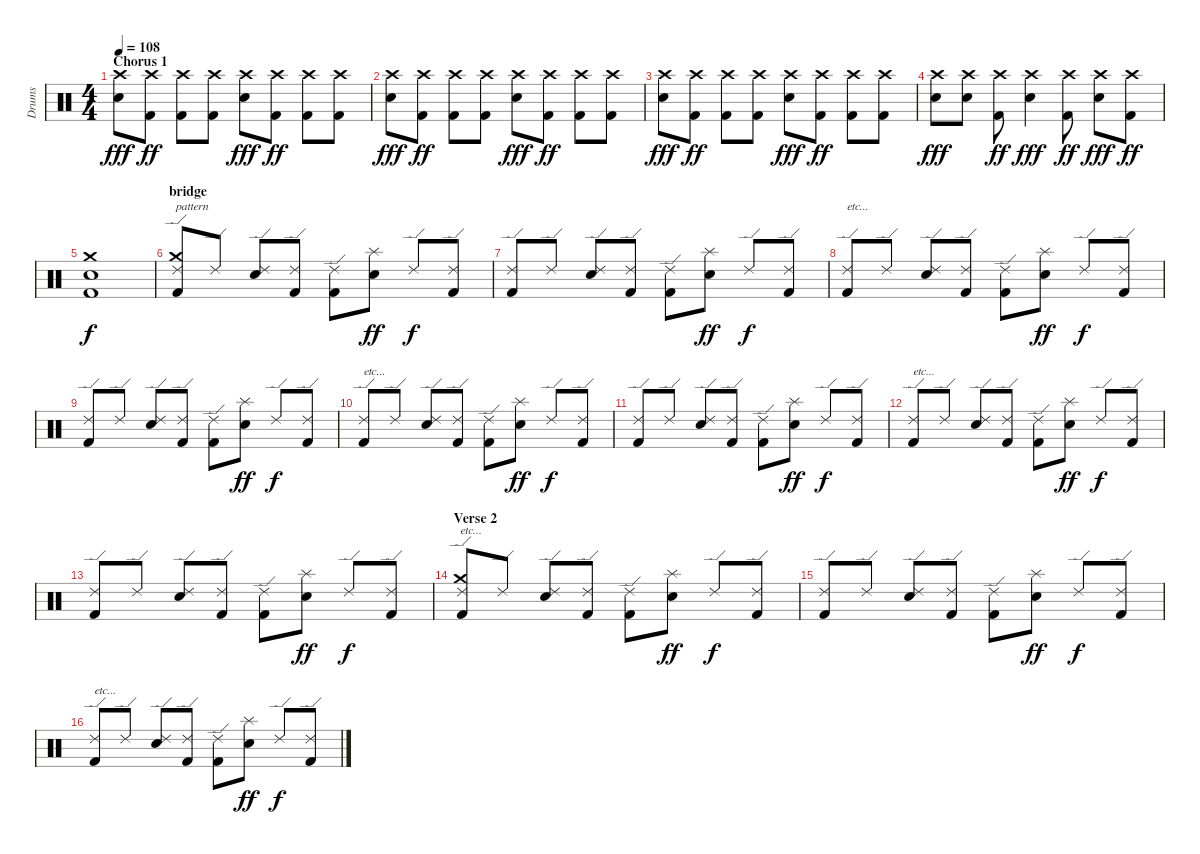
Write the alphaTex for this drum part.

\track ("Drums" "Drums") {instrument percussion}
\staff {score}
\articulation defaults
\ts (4 4)
\section ("" "Chorus 1")
\tempo 108
\clef neutral
\ks c
("Crash high (hit)" "Electric Snare (hit)").8{dy fff} ("Crash high (hit)" "Kick (hit) 2").8{dy ff} ("Crash high (hit)" "Kick (hit) 2").8 ("Crash high (hit)" "Kick (hit) 2").8 ("Crash high (hit)" "Electric Snare (hit)").8{dy fff} ("Crash high (hit)" "Kick (hit) 2").8{dy ff} ("Crash high (hit)" "Kick (hit) 2").8 ("Crash high (hit)" "Kick (hit) 2").8 |
("Crash high (hit)" "Electric Snare (hit)").8{dy fff} ("Crash high (hit)" "Kick (hit) 2").8{dy ff} ("Crash high (hit)" "Kick (hit) 2").8 ("Crash high (hit)" "Kick (hit) 2").8 ("Crash high (hit)" "Electric Snare (hit)").8{dy fff} ("Crash high (hit)" "Kick (hit) 2").8{dy ff} ("Crash high (hit)" "Kick (hit) 2").8 ("Crash high (hit)" "Kick (hit) 2").8 |
("Crash high (hit)" "Electric Snare (hit)").8{dy fff} ("Crash high (hit)" "Kick (hit) 2").8{dy ff} ("Crash high (hit)" "Kick (hit) 2").8 ("Crash high (hit)" "Kick (hit) 2").8 ("Crash high (hit)" "Electric Snare (hit)").8{dy fff} ("Crash high (hit)" "Kick (hit) 2").8{dy ff} ("Crash high (hit)" "Kick (hit) 2").8 ("Crash high (hit)" "Kick (hit) 2").8 |
("Crash high (hit)" "Electric Snare (hit)").8{dy fff} ("Crash high (hit)" "Electric Snare (hit)").8 ("Crash high (hit)" "Kick (hit) 2").8{dy ff} ("Crash high (hit)" "Electric Snare (hit)").4{dy fff} ("Crash high (hit)" "Kick (hit) 2").8{dy ff} ("Crash high (hit)" "Electric Snare (hit)").8{dy fff} ("Crash high (hit)" "Kick (hit) 2").8{dy ff} |
("Crash medium (hit)" "Electric Snare (hit)" "Kick (hit) 2").1{dy f} |
\section ("" "bridge")
("Ride (edge) 2" "Crash medium (hit)" "Kick (hit) 2").8{txt "pattern"} "Ride (edge) 2".8 ("Ride (edge) 2" "Electric Snare (hit)").8 ("Ride (edge) 2" "Kick (hit) 2").8 ("Ride (edge) 2" "Kick (hit) 2").8 ("Splash (hit)" "Electric Snare (hit)").8{dy ff} "Ride (edge) 2".8{dy f} ("Ride (edge) 2" "Kick (hit) 2").8 |
("Ride (edge) 2" "Kick (hit) 2").8 "Ride (edge) 2".8 ("Ride (edge) 2" "Electric Snare (hit)").8 ("Ride (edge) 2" "Kick (hit) 2").8 ("Ride (edge) 2" "Kick (hit) 2").8 ("Splash (hit)" "Electric Snare (hit)").8{dy ff} "Ride (edge) 2".8{dy f} ("Ride (edge) 2" "Kick (hit) 2").8 |
("Ride (edge) 2" "Kick (hit) 2").8{txt "etc..."} "Ride (edge) 2".8 ("Ride (edge) 2" "Electric Snare (hit)").8 ("Ride (edge) 2" "Kick (hit) 2").8 ("Ride (edge) 2" "Kick (hit) 2").8 ("Splash (hit)" "Electric Snare (hit)").8{dy ff} "Ride (edge) 2".8{dy f} ("Ride (edge) 2" "Kick (hit) 2").8 |
("Ride (edge) 2" "Kick (hit) 2").8 "Ride (edge) 2".8 ("Ride (edge) 2" "Electric Snare (hit)").8 ("Ride (edge) 2" "Kick (hit) 2").8 ("Ride (edge) 2" "Kick (hit) 2").8 ("Splash (hit)" "Electric Snare (hit)").8{dy ff} "Ride (edge) 2".8{dy f} ("Ride (edge) 2" "Kick (hit) 2").8 |
("Ride (edge) 2" "Kick (hit) 2").8{txt "etc..."} "Ride (edge) 2".8 ("Ride (edge) 2" "Electric Snare (hit)").8 ("Ride (edge) 2" "Kick (hit) 2").8 ("Ride (edge) 2" "Kick (hit) 2").8 ("Splash (hit)" "Electric Snare (hit)").8{dy ff} "Ride (edge) 2".8{dy f} ("Ride (edge) 2" "Kick (hit) 2").8 |
("Ride (edge) 2" "Kick (hit) 2").8 "Ride (edge) 2".8 ("Ride (edge) 2" "Electric Snare (hit)").8 ("Ride (edge) 2" "Kick (hit) 2").8 ("Ride (edge) 2" "Kick (hit) 2").8 ("Splash (hit)" "Electric Snare (hit)").8{dy ff} "Ride (edge) 2".8{dy f} ("Ride (edge) 2" "Kick (hit) 2").8 |
("Ride (edge) 2" "Kick (hit) 2").8{txt "etc..."} "Ride (edge) 2".8 ("Ride (edge) 2" "Electric Snare (hit)").8 ("Ride (edge) 2" "Kick (hit) 2").8 ("Ride (edge) 2" "Kick (hit) 2").8 ("Splash (hit)" "Electric Snare (hit)").8{dy ff} "Ride (edge) 2".8{dy f} ("Ride (edge) 2" "Kick (hit) 2").8 |
("Ride (edge) 2" "Kick (hit) 2").8 "Ride (edge) 2".8 ("Ride (edge) 2" "Electric Snare (hit)").8 ("Ride (edge) 2" "Kick (hit) 2").8 ("Ride (edge) 2" "Kick (hit) 2").8 ("Splash (hit)" "Electric Snare (hit)").8{dy ff} "Ride (edge) 2".8{dy f} ("Ride (edge) 2" "Kick (hit) 2").8 |
\section ("" "Verse 2")
("Ride (edge) 2" "Crash medium (hit)" "Kick (hit) 2").8{txt "etc..."} "Ride (edge) 2".8 ("Ride (edge) 2" "Electric Snare (hit)").8 ("Ride (edge) 2" "Kick (hit) 2").8 ("Ride (edge) 2" "Kick (hit) 2").8 ("Splash (hit)" "Electric Snare (hit)").8{dy ff} "Ride (edge) 2".8{dy f} ("Ride (edge) 2" "Kick (hit) 2").8 |
("Ride (edge) 2" "Kick (hit) 2").8 "Ride (edge) 2".8 ("Ride (edge) 2" "Electric Snare (hit)").8 ("Ride (edge) 2" "Kick (hit) 2").8 ("Ride (edge) 2" "Kick (hit) 2").8 ("Splash (hit)" "Electric Snare (hit)").8{dy ff} "Ride (edge) 2".8{dy f} ("Ride (edge) 2" "Kick (hit) 2").8 |
("Ride (edge) 2" "Kick (hit) 2").8{txt "etc..."} "Ride (edge) 2".8 ("Ride (edge) 2" "Electric Snare (hit)").8 ("Ride (edge) 2" "Kick (hit) 2").8 ("Ride (edge) 2" "Kick (hit) 2").8 ("Splash (hit)" "Electric Snare (hit)").8{dy ff} "Ride (edge) 2".8{dy f} ("Ride (edge) 2" "Kick (hit) 2").8
